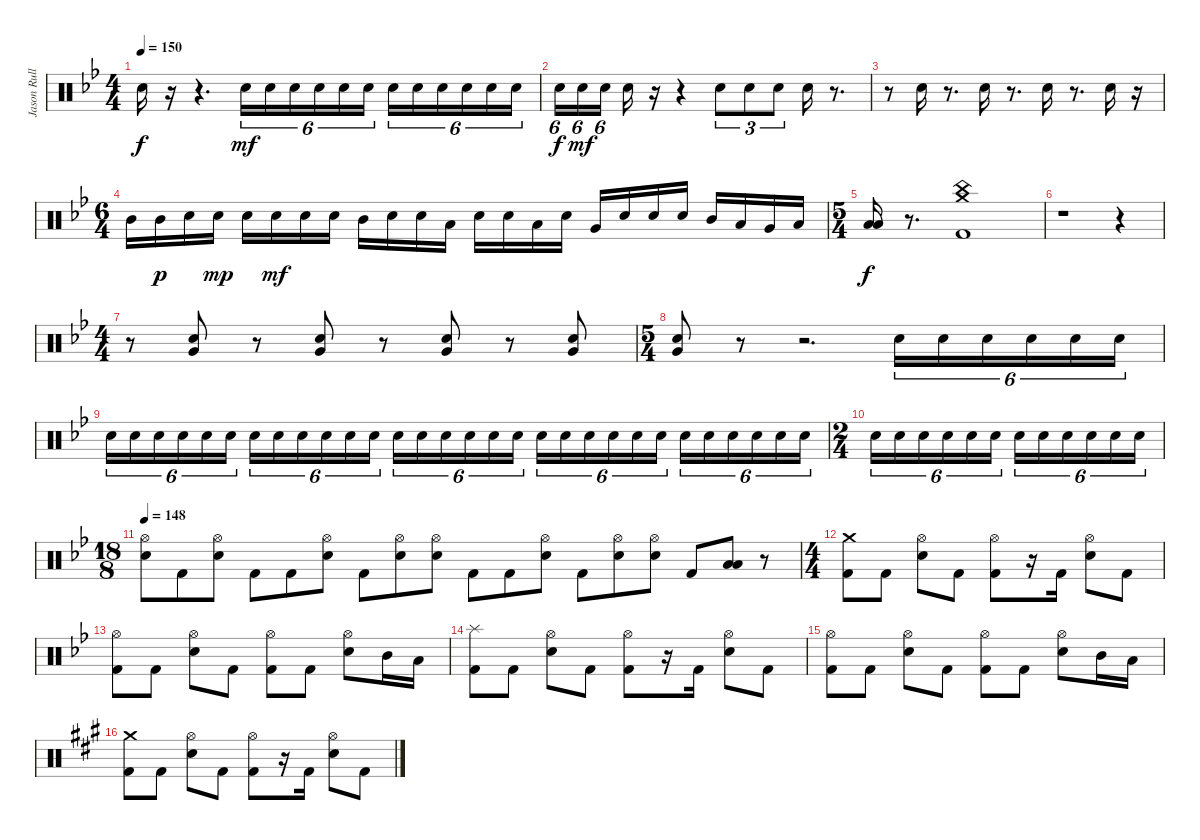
\track ("Jason Rullo (drums)" "Jason Rull") {instrument percussion}
\staff {score}
\articulation defaults
\ts (4 4)
\tempo 150
\clef neutral
\ks gminor "Electric Snare (hit)".16{dy f}
r.16 r.4{d} "Electric Snare (hit)".16{tu (6 4) dy mf volume 0} "Electric Snare (hit)".16{tu (6 4) volume 1} "Electric Snare (hit)".16{tu (6 4) volume 2} "Electric Snare (hit)".16{tu (6 4) volume 3} "Electric Snare (hit)".16{tu (6 4) volume 4} "Electric Snare (hit)".16{tu (6 4) volume 5} "Electric Snare (hit)".16{tu (6 4) volume 6} "Electric Snare (hit)".16{tu (6 4) volume 6} "Electric Snare (hit)".16{tu (6 4) volume 8} "Electric Snare (hit)".16{tu (6 4) volume 8} "Electric Snare (hit)".16{tu (6 4) volume 9} "Electric Snare (hit)".16{tu (6 4) volume 10} |
"Electric Snare (hit)".16{tu (6 4) dy f volume 11} "Electric Snare (hit)".16{tu (6 4) dy mf volume 12} "Electric Snare (hit)".16{tu (6 4) volume 13 beam splitsecondary} "Electric Snare (hit)".16{volume 14} r.16 r.4 "Electric Snare (hit)".8{tu (3 2) volume 15} "Electric Snare (hit)".8{tu (3 2)} "Electric Snare (hit)".8{tu (3 2)} "Electric Snare (hit)".16 r.8{d} |
r.8 "Electric Snare (hit)".16 r.8{d} "Electric Snare (hit)".16 r.8{d} "Electric Snare (hit)".16 r.8{d} "Electric Snare (hit)".16 r.16 |
\ts (6 4)
"Mid Tom (hit)".16 "Mid Tom (hit)".16{dy p} "Electric Snare (hit)".16 "Electric Snare (hit)".16{dy mp} "Electric Snare (hit)".16 "Electric Snare (hit)".16{dy mf} "Electric Snare (hit)".16 "Electric Snare (hit)".16 "Mid Tom (hit)".16 "Electric Snare (hit)".16 "Electric Snare (hit)".16 "Low Tom (hit)".16 "Electric Snare (hit)".16 "Electric Snare (hit)".16 "Low Tom (hit)".16 "Electric Snare (hit)".16 "Very Low Tom (hit)".16 "Electric Snare (hit)".16 "Electric Snare (hit)".16 "Electric Snare (hit)".16 "Mid Tom (hit)".16 "Low Tom (hit)".16 "Very Low Tom (hit)".16 "Low Floor Tom (hit)".16 |
\ts (5 4)
("Low Tom (hit)" "Low Floor Tom (hit)").16{dy f} r.8{d} ("China (hit)" "Crash medium (hit)" "Kick (hit) 2").1 |
r.1 r.4 |
\ts (4 4)
r.8 ("Very Low Tom (hit)" "Electric Snare (hit)").8 r.8 ("Very Low Tom (hit)" "Electric Snare (hit)").8 r.8 ("Very Low Tom (hit)" "Electric Snare (hit)").8 r.8 ("Very Low Tom (hit)" "Electric Snare (hit)").8 |
\ts (5 4)
("Very Low Tom (hit)" "Electric Snare (hit)").8 r.8 r.2{d} "Electric Snare (hit)".16{tu (6 4) volume 0} "Electric Snare (hit)".16{tu (6 4) volume 0} "Electric Snare (hit)".16{tu (6 4) volume 1} "Electric Snare (hit)".16{tu (6 4) volume 1} "Electric Snare (hit)".16{tu (6 4) volume 1} "Electric Snare (hit)".16{tu (6 4) volume 2} |
"Electric Snare (hit)".16{tu (6 4) volume 2} "Electric Snare (hit)".16{tu (6 4) volume 2} "Electric Snare (hit)".16{tu (6 4) volume 2} "Electric Snare (hit)".16{tu (6 4) volume 3} "Electric Snare (hit)".16{tu (6 4) volume 3} "Electric Snare (hit)".16{tu (6 4) volume 3} "Electric Snare (hit)".16{tu (6 4) volume 4} "Electric Snare (hit)".16{tu (6 4) volume 4} "Electric Snare (hit)".16{tu (6 4) volume 4} "Electric Snare (hit)".16{tu (6 4) volume 5} "Electric Snare (hit)".16{tu (6 4) volume 5} "Electric Snare (hit)".16{tu (6 4) volume 5} "Electric Snare (hit)".16{tu (6 4) volume 6} "Electric Snare (hit)".16{tu (6 4) volume 6} "Electric Snare (hit)".16{tu (6 4) volume 6} "Electric Snare (hit)".16{tu (6 4) volume 6} "Electric Snare (hit)".16{tu (6 4) volume 7} "Electric Snare (hit)".16{tu (6 4) volume 7} "Electric Snare (hit)".16{tu (6 4) volume 7} "Electric Snare (hit)".16{tu (6 4) volume 8} "Electric Snare (hit)".16{tu (6 4) volume 8} "Electric Snare (hit)".16{tu (6 4) volume 8} "Electric Snare (hit)".16{tu (6 4) volume 9} "Electric Snare (hit)".16{tu (6 4) volume 9} "Electric Snare (hit)".16{tu (6 4) volume 9} "Electric Snare (hit)".16{tu (6 4) volume 10} "Electric Snare (hit)".16{tu (6 4) volume 10} "Electric Snare (hit)".16{tu (6 4) volume 10} "Electric Snare (hit)".16{tu (6 4) volume 10} "Electric Snare (hit)".16{tu (6 4) volume 11} |
\ts (2 4)
"Electric Snare (hit)".16{tu (6 4) volume 11} "Electric Snare (hit)".16{tu (6 4) volume 11} "Electric Snare (hit)".16{tu (6 4) volume 12} "Electric Snare (hit)".16{tu (6 4) volume 12} "Electric Snare (hit)".16{tu (6 4) volume 12} "Electric Snare (hit)".16{tu (6 4) volume 13} "Electric Snare (hit)".16{tu (6 4) volume 13} "Electric Snare (hit)".16{tu (6 4) volume 13} "Electric Snare (hit)".16{tu (6 4) volume 14} "Electric Snare (hit)".16{tu (6 4) volume 14} "Electric Snare (hit)".16{tu (6 4) volume 14} "Electric Snare (hit)".16{tu (6 4) volume 14} |
\ts (18 8)
\tempo 148
("Hi-Hat (open)" "Electric Snare (hit)").8{volume 15} "Kick (hit) 2".8 ("Hi-Hat (open)" "Electric Snare (hit)").8 "Kick (hit) 2".8 "Kick (hit) 2".8 ("Hi-Hat (open)" "Electric Snare (hit)").8 "Kick (hit) 2".8 ("Hi-Hat (open)" "Electric Snare (hit)").8 ("Hi-Hat (open)" "Electric Snare (hit)").8 "Kick (hit) 2".8 "Kick (hit) 2".8 ("Hi-Hat (open)" "Electric Snare (hit)").8 "Kick (hit) 2".8 ("Hi-Hat (open)" "Electric Snare (hit)").8 ("Hi-Hat (open)" "Electric Snare (hit)").8 "Kick (hit) 2".8 ("Low Tom (hit)" "Low Floor Tom (hit)").8 r.8 |
\ts (4 4)
("Crash medium (hit)" "Kick (hit) 2").8 "Kick (hit) 2".8 ("Hi-Hat (open)" "Electric Snare (hit)").8 "Kick (hit) 2".8 ("Hi-Hat (open)" "Kick (hit) 2").8 r.16 "Kick (hit) 2".16 ("Hi-Hat (open)" "Electric Snare (hit)").8 "Kick (hit) 2".8 |
("Hi-Hat (open)" "Kick (hit) 2").8 "Kick (hit) 2".8 ("Hi-Hat (open)" "Electric Snare (hit)").8 "Kick (hit) 2".8 ("Hi-Hat (open)" "Kick (hit) 2").8 "Kick (hit) 2".8 ("Hi-Hat (open)" "Electric Snare (hit)").8 "Mid Tom (hit)".16 "Low Tom (hit)".16 |
("Splash (hit)" "Kick (hit) 2").8 "Kick (hit) 2".8 ("Hi-Hat (open)" "Electric Snare (hit)").8 "Kick (hit) 2".8 ("Hi-Hat (open)" "Kick (hit) 2").8 r.16 "Kick (hit) 2".16 ("Hi-Hat (open)" "Electric Snare (hit)").8 "Kick (hit) 2".8 |
("Hi-Hat (open)" "Kick (hit) 2").8 "Kick (hit) 2".8 ("Hi-Hat (open)" "Electric Snare (hit)").8 "Kick (hit) 2".8 ("Hi-Hat (open)" "Kick (hit) 2").8 "Kick (hit) 2".8 ("Hi-Hat (open)" "Electric Snare (hit)").8 "Mid Tom (hit)".16 "Low Tom (hit)".16 |
\ks f#minor
("Crash medium (hit)" "Kick (hit) 2").8 "Kick (hit) 2".8 ("Hi-Hat (open)" "Electric Snare (hit)").8 "Kick (hit) 2".8 ("Hi-Hat (open)" "Kick (hit) 2").8 r.16 "Kick (hit) 2".16 ("Hi-Hat (open)" "Electric Snare (hit)").8 "Kick (hit) 2".8
